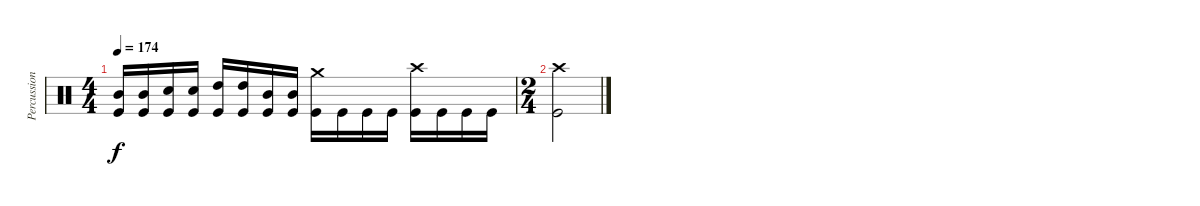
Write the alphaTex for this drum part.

\track ("Percussion" "Percussion") {instrument percussion}
\staff {score}
\articulation defaults
\ts (4 4)
\tempo 174
\clef neutral
\ks c
("Mid Tom (hit)" "Kick (hit)").16{dy f} ("Mid Tom (hit)" "Kick (hit)").16 ("Electric Snare (hit)" "Kick (hit)").16 ("Electric Snare (hit)" "Kick (hit)").16 ("High Tom (hit)" "Kick (hit)").16 ("High Tom (hit)" "Kick (hit)").16 ("Mid Tom (hit)" "Kick (hit)").16 ("Mid Tom (hit)" "Kick (hit)").16 ("Crash medium (hit)" "Kick (hit)").16 "Kick (hit)".16 "Kick (hit)".16 "Kick (hit)".16 ("Crash high (hit)" "Kick (hit)").16 "Kick (hit)".16 "Kick (hit)".16 "Kick (hit)".16 |
\ts (2 4)
("Crash high (hit)" "Kick (hit)").2
